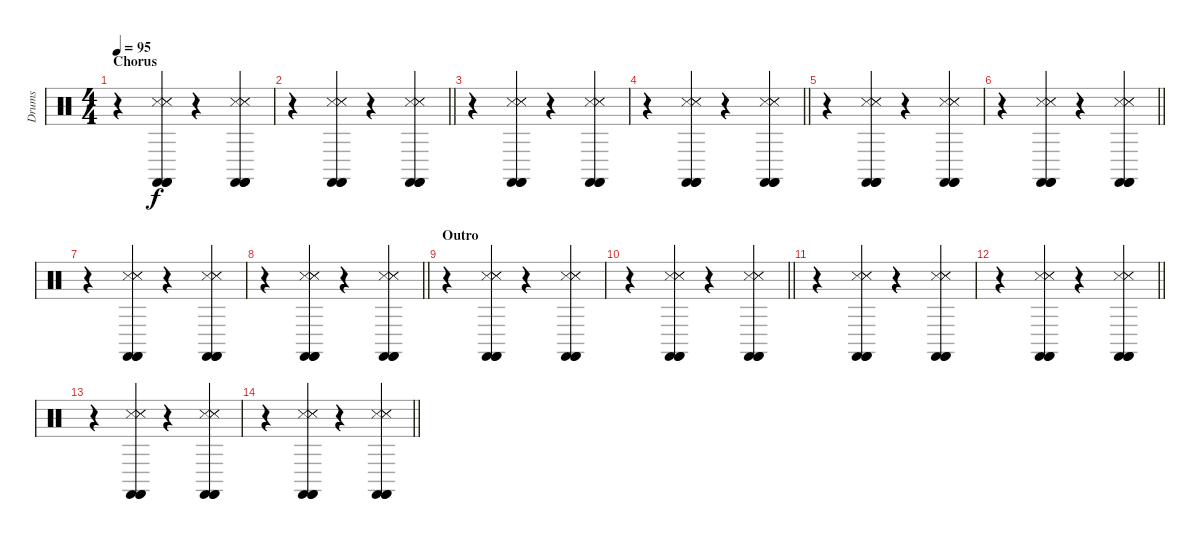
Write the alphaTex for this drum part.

\track ("Drums" "Drums") {instrument percussion}
\staff {score}
\articulation defaults
\ts (4 4)
\section ("" "Chorus")
\tempo 95
\clef neutral
\ks c
r.4{dy f} ("Castanets (hit)" "Snare (side stick) 3" "Castanets (hit)" "Snare (side stick) 3" "Snare (side stick) 3" "Castanets (hit)").4 r.4 ("Castanets (hit)" "Snare (side stick) 3" "Castanets (hit)" "Snare (side stick) 3" "Snare (side stick) 3" "Castanets (hit)").4 |
\barLineRight lightlight
r.4 ("Castanets (hit)" "Snare (side stick) 3" "Castanets (hit)" "Snare (side stick) 3" "Snare (side stick) 3" "Castanets (hit)").4 r.4 ("Castanets (hit)" "Snare (side stick) 3" "Castanets (hit)" "Snare (side stick) 3" "Snare (side stick) 3" "Castanets (hit)").4 |
r.4 ("Castanets (hit)" "Snare (side stick) 3" "Castanets (hit)" "Snare (side stick) 3" "Snare (side stick) 3" "Castanets (hit)").4 r.4 ("Castanets (hit)" "Snare (side stick) 3" "Castanets (hit)" "Snare (side stick) 3" "Snare (side stick) 3" "Castanets (hit)").4 |
\barLineRight lightlight
r.4 ("Castanets (hit)" "Snare (side stick) 3" "Castanets (hit)" "Snare (side stick) 3" "Snare (side stick) 3" "Castanets (hit)").4 r.4 ("Castanets (hit)" "Snare (side stick) 3" "Castanets (hit)" "Snare (side stick) 3" "Snare (side stick) 3" "Castanets (hit)").4 |
r.4 ("Castanets (hit)" "Snare (side stick) 3" "Castanets (hit)" "Snare (side stick) 3" "Snare (side stick) 3" "Castanets (hit)").4 r.4 ("Castanets (hit)" "Snare (side stick) 3" "Castanets (hit)" "Snare (side stick) 3" "Snare (side stick) 3" "Castanets (hit)").4 |
\barLineRight lightlight
r.4 ("Castanets (hit)" "Snare (side stick) 3" "Castanets (hit)" "Snare (side stick) 3" "Snare (side stick) 3" "Castanets (hit)").4 r.4 ("Castanets (hit)" "Snare (side stick) 3" "Castanets (hit)" "Snare (side stick) 3" "Snare (side stick) 3" "Castanets (hit)").4 |
r.4 ("Castanets (hit)" "Snare (side stick) 3" "Castanets (hit)" "Snare (side stick) 3" "Snare (side stick) 3" "Castanets (hit)").4 r.4 ("Castanets (hit)" "Snare (side stick) 3" "Castanets (hit)" "Snare (side stick) 3" "Snare (side stick) 3" "Castanets (hit)").4 |
\barLineRight lightlight
r.4 ("Castanets (hit)" "Snare (side stick) 3" "Castanets (hit)" "Snare (side stick) 3" "Snare (side stick) 3" "Castanets (hit)").4 r.4 ("Castanets (hit)" "Snare (side stick) 3" "Castanets (hit)" "Snare (side stick) 3" "Snare (side stick) 3" "Castanets (hit)").4 |
\section ("" "Outro")
r.4 ("Castanets (hit)" "Snare (side stick) 3" "Castanets (hit)" "Snare (side stick) 3" "Snare (side stick) 3" "Castanets (hit)").4 r.4 ("Castanets (hit)" "Snare (side stick) 3" "Castanets (hit)" "Snare (side stick) 3" "Snare (side stick) 3" "Castanets (hit)").4 |
\barLineRight lightlight
r.4 ("Castanets (hit)" "Snare (side stick) 3" "Castanets (hit)" "Snare (side stick) 3" "Snare (side stick) 3" "Castanets (hit)").4 r.4 ("Castanets (hit)" "Snare (side stick) 3" "Castanets (hit)" "Snare (side stick) 3" "Snare (side stick) 3" "Castanets (hit)").4 |
r.4 ("Castanets (hit)" "Snare (side stick) 3" "Castanets (hit)" "Snare (side stick) 3" "Snare (side stick) 3" "Castanets (hit)").4 r.4 ("Castanets (hit)" "Snare (side stick) 3" "Castanets (hit)" "Snare (side stick) 3" "Snare (side stick) 3" "Castanets (hit)").4 |
\barLineRight lightlight
r.4 ("Castanets (hit)" "Snare (side stick) 3" "Castanets (hit)" "Snare (side stick) 3" "Snare (side stick) 3" "Castanets (hit)").4 r.4 ("Castanets (hit)" "Snare (side stick) 3" "Castanets (hit)" "Snare (side stick) 3" "Snare (side stick) 3" "Castanets (hit)").4 |
r.4 ("Castanets (hit)" "Snare (side stick) 3" "Castanets (hit)" "Snare (side stick) 3" "Snare (side stick) 3" "Castanets (hit)").4 r.4 ("Castanets (hit)" "Snare (side stick) 3" "Castanets (hit)" "Snare (side stick) 3" "Snare (side stick) 3" "Castanets (hit)").4 |
\barLineRight lightlight
r.4 ("Castanets (hit)" "Snare (side stick) 3" "Castanets (hit)" "Snare (side stick) 3" "Snare (side stick) 3" "Castanets (hit)").4 r.4 ("Castanets (hit)" "Snare (side stick) 3" "Castanets (hit)" "Snare (side stick) 3" "Snare (side stick) 3" "Castanets (hit)").4
